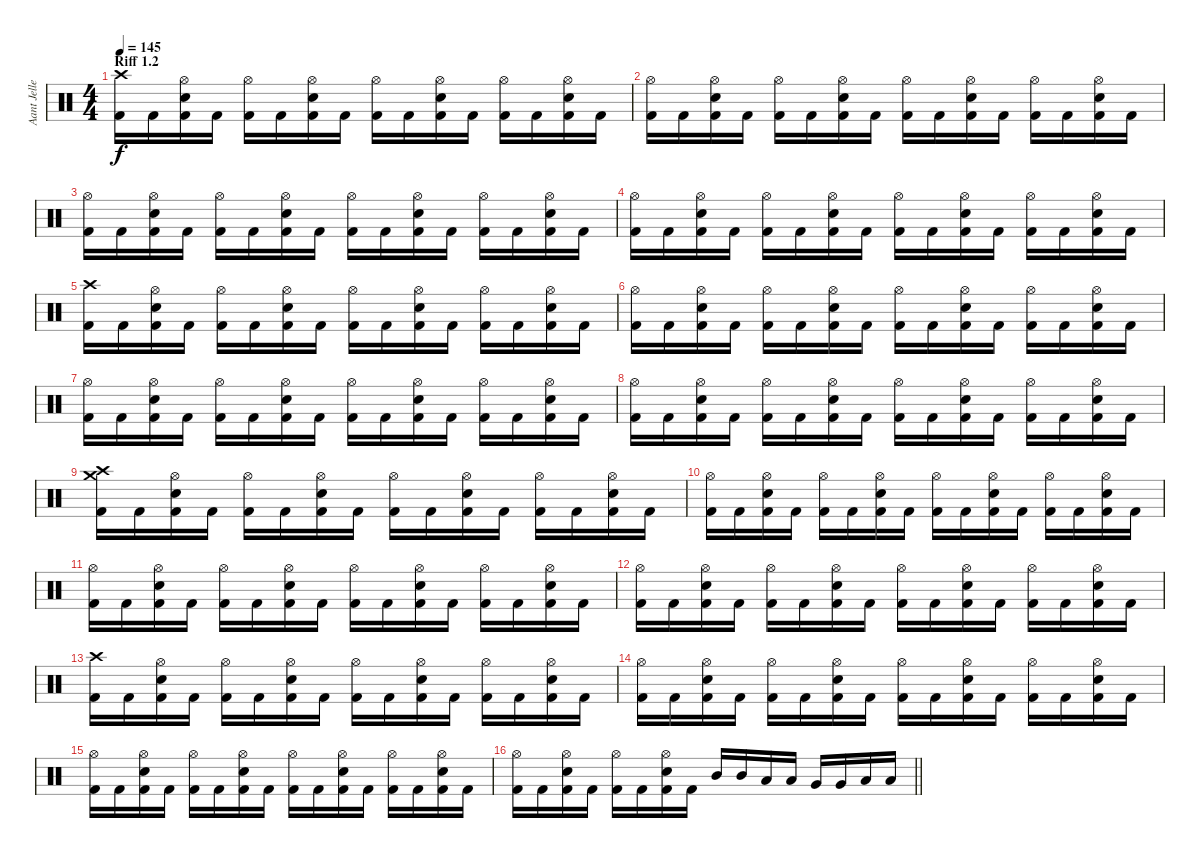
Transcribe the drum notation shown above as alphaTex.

\track ("Aant Jelle" "Aant Jelle") {instrument percussion}
\staff {score}
\articulation defaults
\ts (4 4)
\section ("" "Riff 1.2")
\tempo 145
\clef neutral
\ks c
("Crash high (hit)" "Kick (hit) 2").16{dy f} "Kick (hit) 2".16 ("Hi-Hat (open)" "Electric Snare (hit)" "Kick (hit) 2").16 "Kick (hit) 2".16 ("Hi-Hat (open)" "Kick (hit) 2").16 "Kick (hit) 2".16 ("Hi-Hat (open)" "Electric Snare (hit)" "Kick (hit) 2").16 "Kick (hit) 2".16 ("Hi-Hat (open)" "Kick (hit) 2").16 "Kick (hit) 2".16 ("Hi-Hat (open)" "Electric Snare (hit)" "Kick (hit) 2").16 "Kick (hit) 2".16 ("Hi-Hat (open)" "Kick (hit) 2").16 "Kick (hit) 2".16 ("Hi-Hat (open)" "Electric Snare (hit)" "Kick (hit) 2").16 "Kick (hit) 2".16 |
("Hi-Hat (open)" "Kick (hit) 2").16 "Kick (hit) 2".16 ("Hi-Hat (open)" "Electric Snare (hit)" "Kick (hit) 2").16 "Kick (hit) 2".16 ("Hi-Hat (open)" "Kick (hit) 2").16 "Kick (hit) 2".16 ("Hi-Hat (open)" "Electric Snare (hit)" "Kick (hit) 2").16 "Kick (hit) 2".16 ("Hi-Hat (open)" "Kick (hit) 2").16 "Kick (hit) 2".16 ("Hi-Hat (open)" "Electric Snare (hit)" "Kick (hit) 2").16 "Kick (hit) 2".16 ("Hi-Hat (open)" "Kick (hit) 2").16 "Kick (hit) 2".16 ("Hi-Hat (open)" "Electric Snare (hit)" "Kick (hit) 2").16 "Kick (hit) 2".16 |
("Hi-Hat (open)" "Kick (hit) 2").16 "Kick (hit) 2".16 ("Hi-Hat (open)" "Electric Snare (hit)" "Kick (hit) 2").16 "Kick (hit) 2".16 ("Hi-Hat (open)" "Kick (hit) 2").16 "Kick (hit) 2".16 ("Hi-Hat (open)" "Electric Snare (hit)" "Kick (hit) 2").16 "Kick (hit) 2".16 ("Hi-Hat (open)" "Kick (hit) 2").16 "Kick (hit) 2".16 ("Hi-Hat (open)" "Electric Snare (hit)" "Kick (hit) 2").16 "Kick (hit) 2".16 ("Hi-Hat (open)" "Kick (hit) 2").16 "Kick (hit) 2".16 ("Hi-Hat (open)" "Electric Snare (hit)" "Kick (hit) 2").16 "Kick (hit) 2".16 |
("Hi-Hat (open)" "Kick (hit) 2").16 "Kick (hit) 2".16 ("Hi-Hat (open)" "Electric Snare (hit)" "Kick (hit) 2").16 "Kick (hit) 2".16 ("Hi-Hat (open)" "Kick (hit) 2").16 "Kick (hit) 2".16 ("Hi-Hat (open)" "Electric Snare (hit)" "Kick (hit) 2").16 "Kick (hit) 2".16 ("Hi-Hat (open)" "Kick (hit) 2").16 "Kick (hit) 2".16 ("Hi-Hat (open)" "Electric Snare (hit)" "Kick (hit) 2").16 "Kick (hit) 2".16 ("Hi-Hat (open)" "Kick (hit) 2").16 "Kick (hit) 2".16 ("Hi-Hat (open)" "Electric Snare (hit)" "Kick (hit) 2").16 "Kick (hit) 2".16 |
("Crash high (hit)" "Kick (hit) 2").16 "Kick (hit) 2".16 ("Hi-Hat (open)" "Electric Snare (hit)" "Kick (hit) 2").16 "Kick (hit) 2".16 ("Hi-Hat (open)" "Kick (hit) 2").16 "Kick (hit) 2".16 ("Hi-Hat (open)" "Electric Snare (hit)" "Kick (hit) 2").16 "Kick (hit) 2".16 ("Hi-Hat (open)" "Kick (hit) 2").16 "Kick (hit) 2".16 ("Hi-Hat (open)" "Electric Snare (hit)" "Kick (hit) 2").16 "Kick (hit) 2".16 ("Hi-Hat (open)" "Kick (hit) 2").16 "Kick (hit) 2".16 ("Hi-Hat (open)" "Electric Snare (hit)" "Kick (hit) 2").16 "Kick (hit) 2".16 |
("Hi-Hat (open)" "Kick (hit) 2").16 "Kick (hit) 2".16 ("Hi-Hat (open)" "Electric Snare (hit)" "Kick (hit) 2").16 "Kick (hit) 2".16 ("Hi-Hat (open)" "Kick (hit) 2").16 "Kick (hit) 2".16 ("Hi-Hat (open)" "Electric Snare (hit)" "Kick (hit) 2").16 "Kick (hit) 2".16 ("Hi-Hat (open)" "Kick (hit) 2").16 "Kick (hit) 2".16 ("Hi-Hat (open)" "Electric Snare (hit)" "Kick (hit) 2").16 "Kick (hit) 2".16 ("Hi-Hat (open)" "Kick (hit) 2").16 "Kick (hit) 2".16 ("Hi-Hat (open)" "Electric Snare (hit)" "Kick (hit) 2").16 "Kick (hit) 2".16 |
("Hi-Hat (open)" "Kick (hit) 2").16 "Kick (hit) 2".16 ("Hi-Hat (open)" "Electric Snare (hit)" "Kick (hit) 2").16 "Kick (hit) 2".16 ("Hi-Hat (open)" "Kick (hit) 2").16 "Kick (hit) 2".16 ("Hi-Hat (open)" "Electric Snare (hit)" "Kick (hit) 2").16 "Kick (hit) 2".16 ("Hi-Hat (open)" "Kick (hit) 2").16 "Kick (hit) 2".16 ("Hi-Hat (open)" "Electric Snare (hit)" "Kick (hit) 2").16 "Kick (hit) 2".16 ("Hi-Hat (open)" "Kick (hit) 2").16 "Kick (hit) 2".16 ("Hi-Hat (open)" "Electric Snare (hit)" "Kick (hit) 2").16 "Kick (hit) 2".16 |
("Hi-Hat (open)" "Kick (hit) 2").16 "Kick (hit) 2".16 ("Hi-Hat (open)" "Electric Snare (hit)" "Kick (hit) 2").16 "Kick (hit) 2".16 ("Hi-Hat (open)" "Kick (hit) 2").16 "Kick (hit) 2".16 ("Hi-Hat (open)" "Electric Snare (hit)" "Kick (hit) 2").16 "Kick (hit) 2".16 ("Hi-Hat (open)" "Kick (hit) 2").16 "Kick (hit) 2".16 ("Hi-Hat (open)" "Electric Snare (hit)" "Kick (hit) 2").16 "Kick (hit) 2".16 ("Hi-Hat (open)" "Kick (hit) 2").16 "Kick (hit) 2".16 ("Hi-Hat (open)" "Electric Snare (hit)" "Kick (hit) 2").16 "Kick (hit) 2".16 |
("Crash medium (hit)" "Crash high (hit)" "Kick (hit) 2").16 "Kick (hit) 2".16 ("Hi-Hat (open)" "Electric Snare (hit)" "Kick (hit) 2").16 "Kick (hit) 2".16 ("Hi-Hat (open)" "Kick (hit) 2").16 "Kick (hit) 2".16 ("Hi-Hat (open)" "Electric Snare (hit)" "Kick (hit) 2").16 "Kick (hit) 2".16 ("Hi-Hat (open)" "Kick (hit) 2").16 "Kick (hit) 2".16 ("Hi-Hat (open)" "Electric Snare (hit)" "Kick (hit) 2").16 "Kick (hit) 2".16 ("Hi-Hat (open)" "Kick (hit) 2").16 "Kick (hit) 2".16 ("Hi-Hat (open)" "Electric Snare (hit)" "Kick (hit) 2").16 "Kick (hit) 2".16 |
("Hi-Hat (open)" "Kick (hit) 2").16 "Kick (hit) 2".16 ("Hi-Hat (open)" "Electric Snare (hit)" "Kick (hit) 2").16 "Kick (hit) 2".16 ("Hi-Hat (open)" "Kick (hit) 2").16 "Kick (hit) 2".16 ("Hi-Hat (open)" "Electric Snare (hit)" "Kick (hit) 2").16 "Kick (hit) 2".16 ("Hi-Hat (open)" "Kick (hit) 2").16 "Kick (hit) 2".16 ("Hi-Hat (open)" "Electric Snare (hit)" "Kick (hit) 2").16 "Kick (hit) 2".16 ("Hi-Hat (open)" "Kick (hit) 2").16 "Kick (hit) 2".16 ("Hi-Hat (open)" "Electric Snare (hit)" "Kick (hit) 2").16 "Kick (hit) 2".16 |
("Hi-Hat (open)" "Kick (hit) 2").16 "Kick (hit) 2".16 ("Hi-Hat (open)" "Electric Snare (hit)" "Kick (hit) 2").16 "Kick (hit) 2".16 ("Hi-Hat (open)" "Kick (hit) 2").16 "Kick (hit) 2".16 ("Hi-Hat (open)" "Electric Snare (hit)" "Kick (hit) 2").16 "Kick (hit) 2".16 ("Hi-Hat (open)" "Kick (hit) 2").16 "Kick (hit) 2".16 ("Hi-Hat (open)" "Electric Snare (hit)" "Kick (hit) 2").16 "Kick (hit) 2".16 ("Hi-Hat (open)" "Kick (hit) 2").16 "Kick (hit) 2".16 ("Hi-Hat (open)" "Electric Snare (hit)" "Kick (hit) 2").16 "Kick (hit) 2".16 |
("Hi-Hat (open)" "Kick (hit) 2").16 "Kick (hit) 2".16 ("Hi-Hat (open)" "Electric Snare (hit)" "Kick (hit) 2").16 "Kick (hit) 2".16 ("Hi-Hat (open)" "Kick (hit) 2").16 "Kick (hit) 2".16 ("Hi-Hat (open)" "Electric Snare (hit)" "Kick (hit) 2").16 "Kick (hit) 2".16 ("Hi-Hat (open)" "Kick (hit) 2").16 "Kick (hit) 2".16 ("Hi-Hat (open)" "Electric Snare (hit)" "Kick (hit) 2").16 "Kick (hit) 2".16 ("Hi-Hat (open)" "Kick (hit) 2").16 "Kick (hit) 2".16 ("Hi-Hat (open)" "Electric Snare (hit)" "Kick (hit) 2").16 "Kick (hit) 2".16 |
("Crash high (hit)" "Kick (hit) 2").16 "Kick (hit) 2".16 ("Hi-Hat (open)" "Electric Snare (hit)" "Kick (hit) 2").16 "Kick (hit) 2".16 ("Hi-Hat (open)" "Kick (hit) 2").16 "Kick (hit) 2".16 ("Hi-Hat (open)" "Electric Snare (hit)" "Kick (hit) 2").16 "Kick (hit) 2".16 ("Hi-Hat (open)" "Kick (hit) 2").16 "Kick (hit) 2".16 ("Hi-Hat (open)" "Electric Snare (hit)" "Kick (hit) 2").16 "Kick (hit) 2".16 ("Hi-Hat (open)" "Kick (hit) 2").16 "Kick (hit) 2".16 ("Hi-Hat (open)" "Electric Snare (hit)" "Kick (hit) 2").16 "Kick (hit) 2".16 |
("Hi-Hat (open)" "Kick (hit) 2").16 "Kick (hit) 2".16 ("Hi-Hat (open)" "Electric Snare (hit)" "Kick (hit) 2").16 "Kick (hit) 2".16 ("Hi-Hat (open)" "Kick (hit) 2").16 "Kick (hit) 2".16 ("Hi-Hat (open)" "Electric Snare (hit)" "Kick (hit) 2").16 "Kick (hit) 2".16 ("Hi-Hat (open)" "Kick (hit) 2").16 "Kick (hit) 2".16 ("Hi-Hat (open)" "Electric Snare (hit)" "Kick (hit) 2").16 "Kick (hit) 2".16 ("Hi-Hat (open)" "Kick (hit) 2").16 "Kick (hit) 2".16 ("Hi-Hat (open)" "Electric Snare (hit)" "Kick (hit) 2").16 "Kick (hit) 2".16 |
("Hi-Hat (open)" "Kick (hit) 2").16 "Kick (hit) 2".16 ("Hi-Hat (open)" "Electric Snare (hit)" "Kick (hit) 2").16 "Kick (hit) 2".16 ("Hi-Hat (open)" "Kick (hit) 2").16 "Kick (hit) 2".16 ("Hi-Hat (open)" "Electric Snare (hit)" "Kick (hit) 2").16 "Kick (hit) 2".16 ("Hi-Hat (open)" "Kick (hit) 2").16 "Kick (hit) 2".16 ("Hi-Hat (open)" "Electric Snare (hit)" "Kick (hit) 2").16 "Kick (hit) 2".16 ("Hi-Hat (open)" "Kick (hit) 2").16 "Kick (hit) 2".16 ("Hi-Hat (open)" "Electric Snare (hit)" "Kick (hit) 2").16 "Kick (hit) 2".16 |
\barLineRight lightlight
("Hi-Hat (open)" "Kick (hit) 2").16 "Kick (hit) 2".16 ("Hi-Hat (open)" "Electric Snare (hit)" "Kick (hit) 2").16 "Kick (hit) 2".16 ("Hi-Hat (open)" "Kick (hit) 2").16 "Kick (hit) 2".16 ("Hi-Hat (open)" "Electric Snare (hit)" "Kick (hit) 2").16 "Kick (hit) 2".16 "Mid Tom (hit)".16 "Mid Tom (hit)".16 "Low Tom (hit)".16 "Low Tom (hit)".16 "Very Low Tom (hit)".16 "Very Low Tom (hit)".16 "Low Floor Tom (hit)".16 "Low Floor Tom (hit)".16
